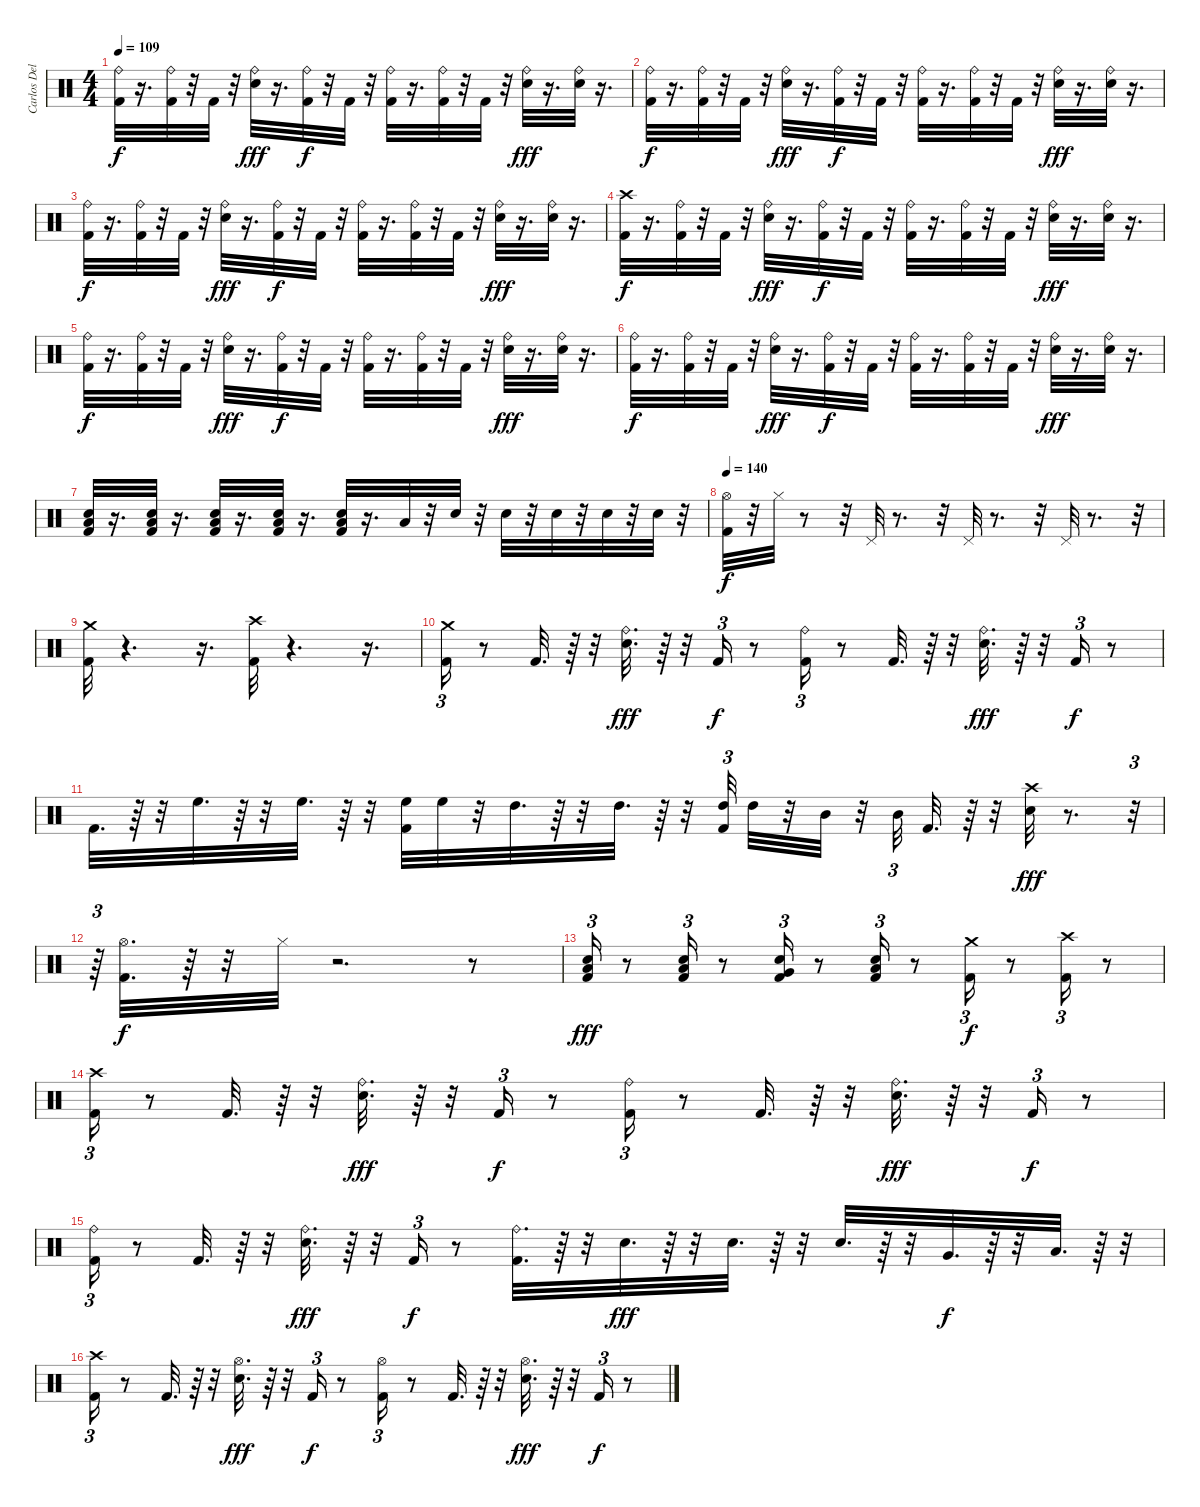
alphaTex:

\track ("Carlos Delgado" "Carlos Del") {instrument percussion}
\staff {score}
\articulation defaults
\ts (4 4)
\tempo 109
\clef neutral
\ks c
("Kick (hit) 2" "Ride (bell)").32{dy f} r.16{d} ("Ride (bell)" "Kick (hit) 2").32 r.32 "Kick (hit) 2".32 r.32 ("Ride (bell)" "Electric Snare (hit)").32{dy fff} r.16{d} ("Ride (bell)" "Kick (hit) 2").32{dy f} r.32 "Kick (hit) 2".32 r.32 ("Kick (hit) 2" "Ride (bell)").32 r.16{d} ("Ride (bell)" "Kick (hit) 2").32 r.32 "Kick (hit) 2".32 r.32 ("Ride (bell)" "Electric Snare (hit)").32{dy fff} r.16{d} ("Electric Snare (hit)" "Ride (bell)").32 r.16{d} |
("Ride (bell)" "Kick (hit) 2").32{dy f} r.16{d} ("Ride (bell)" "Kick (hit) 2").32 r.32 "Kick (hit) 2".32 r.32 ("Ride (bell)" "Electric Snare (hit)").32{dy fff} r.16{d} ("Kick (hit) 2" "Ride (bell)").32{dy f} r.32 "Kick (hit) 2".32 r.32 ("Kick (hit) 2" "Ride (bell)").32 r.16{d} ("Ride (bell)" "Kick (hit) 2").32 r.32 "Kick (hit) 2".32 r.32 ("Electric Snare (hit)" "Ride (bell)").32{dy fff} r.16{d} ("Ride (bell)" "Electric Snare (hit)").32 r.16{d} |
("Ride (bell)" "Kick (hit) 2").32{dy f} r.16{d} ("Ride (bell)" "Kick (hit) 2").32 r.32 "Kick (hit) 2".32 r.32 ("Electric Snare (hit)" "Ride (bell)").32{dy fff} r.16{d} ("Kick (hit) 2" "Ride (bell)").32{dy f} r.32 "Kick (hit) 2".32 r.32 ("Kick (hit) 2" "Ride (bell)").32 r.16{d} ("Ride (bell)" "Kick (hit) 2").32 r.32 "Kick (hit) 2".32 r.32 ("Ride (bell)" "Electric Snare (hit)").32{dy fff} r.16{d} ("Ride (bell)" "Electric Snare (hit)").32 r.16{d} |
("Kick (hit) 2" "Crash high (hit)").32{dy f} r.16{d} ("Ride (bell)" "Kick (hit) 2").32 r.32 "Kick (hit) 2".32 r.32 ("Ride (bell)" "Electric Snare (hit)").32{dy fff} r.16{d} ("Kick (hit) 2" "Ride (bell)").32{dy f} r.32 "Kick (hit) 2".32 r.32 ("Ride (bell)" "Kick (hit) 2").32 r.16{d} ("Kick (hit) 2" "Ride (bell)").32 r.32 "Kick (hit) 2".32 r.32 ("Ride (bell)" "Electric Snare (hit)").32{dy fff} r.16{d} ("Ride (bell)" "Electric Snare (hit)").32 r.16{d} |
("Ride (bell)" "Kick (hit) 2").32{dy f} r.16{d} ("Ride (bell)" "Kick (hit) 2").32 r.32 "Kick (hit) 2".32 r.32 ("Ride (bell)" "Electric Snare (hit)").32{dy fff} r.16{d} ("Kick (hit) 2" "Ride (bell)").32{dy f} r.32 "Kick (hit) 2".32 r.32 ("Ride (bell)" "Kick (hit) 2").32 r.16{d} ("Ride (bell)" "Kick (hit) 2").32 r.32 "Kick (hit) 2".32 r.32 ("Electric Snare (hit)" "Ride (bell)").32{dy fff} r.16{d} ("Electric Snare (hit)" "Ride (bell)").32 r.16{d} |
("Kick (hit) 2" "Ride (bell)").32{dy f} r.16{d} ("Ride (bell)" "Kick (hit) 2").32 r.32 "Kick (hit) 2".32 r.32 ("Electric Snare (hit)" "Ride (bell)").32{dy fff} r.16{d} ("Ride (bell)" "Kick (hit) 2").32{dy f} r.32 "Kick (hit) 2".32 r.32 ("Ride (bell)" "Kick (hit) 2").32 r.16{d} ("Kick (hit) 2" "Ride (bell)").32 r.32 "Kick (hit) 2".32 r.32 ("Ride (bell)" "Electric Snare (hit)").32{dy fff} r.16{d} ("Ride (bell)" "Electric Snare (hit)").32 r.16{d} |
("Kick (hit) 2" "Low Floor Tom (hit)" "Electric Snare (hit)").32 r.16{d} ("Low Floor Tom (hit)" "Electric Snare (hit)" "Kick (hit) 2").32 r.16{d} ("Low Floor Tom (hit)" "Kick (hit) 2" "Electric Snare (hit)").32 r.16{d} ("Low Floor Tom (hit)" "Kick (hit) 2" "Electric Snare (hit)").32 r.16{d} ("Low Floor Tom (hit)" "Kick (hit) 2" "Electric Snare (hit)").32 r.16{d} "Low Floor Tom (hit)".32 r.32 "Electric Snare (hit)".32 r.32 "Electric Snare (hit)".32 r.32 "Electric Snare (hit)".32 r.32 "Electric Snare (hit)".32 r.32 "Electric Snare (hit)".32 r.32 |
\tempo 140
("Hi-Hat (open)" "Kick (hit) 2").32{dy f} r.32 "Hi-Hat (closed)".32 r.8 r.32 "Pedal Hi-Hat (hit)".32 r.8{d} r.32 "Pedal Hi-Hat (hit)".32 r.8{d} r.32 "Pedal Hi-Hat (hit)".32 r.8{d} r.32 |
("Crash medium (hit)" "Kick (hit) 2").32 r.4{d} r.16{d} ("Kick (hit) 2" "Crash high (hit)").32 r.4{d} r.16{d} |
("Crash medium (hit)" "Kick (hit) 2").16{tu (3 2)} r.8 "Kick (hit) 2".32{d} r.64 r.32 ("Ride (bell)" "Electric Snare (hit)").32{d dy fff} r.64 r.32 "Kick (hit) 2".16{tu (3 2) dy f} r.8 ("Ride (bell)" "Kick (hit) 2").16{tu (3 2)} r.8 "Kick (hit) 2".32{d} r.64 r.32 ("Electric Snare (hit)" "Ride (bell)").32{d dy fff} r.64 r.32 "Kick (hit) 2".16{tu (3 2) dy f} r.8 |
"Kick (hit) 2".32{d} r.64 r.32 "High Floor Tom (hit)".32{d} r.64 r.32 "High Floor Tom (hit)".32{d} r.64 r.32 ("Kick (hit) 2" "High Floor Tom (hit)").32 "High Floor Tom (hit)".32 r.32 "High Tom (hit)".32{d} r.64 r.32 "High Tom (hit)".32{d} r.64 r.32 ("High Tom (hit)" "Kick (hit) 2").32{tu (3 2)} "High Tom (hit)".32 r.32 "Mid Tom (hit)".32 r.32 "Mid Tom (hit)".32{tu (3 2)} "Kick (hit) 2".32{d} r.64 r.32 ("Electric Snare (hit)" "Crash high (hit)").32{dy fff} r.8{d} r.32{tu (3 2)} |
r.64{tu (3 2)} ("Kick (hit) 2" "Hi-Hat (open)").32{d dy f} r.64 r.32 "Hi-Hat (closed)".32 r.2{d} r.8 |
("Kick (hit) 2" "Low Tom (hit)" "Electric Snare (hit)").16{tu (3 2) dy fff} r.8 ("Electric Snare (hit)" "Low Tom (hit)" "Kick (hit) 2").16{tu (3 2)} r.8 ("Electric Snare (hit)" "Kick (hit) 2" "Very Low Tom (hit)").16{tu (3 2)} r.8 ("Kick (hit) 2" "Low Floor Tom (hit)" "Electric Snare (hit)").16{tu (3 2)} r.8 ("Crash medium (hit)" "Kick (hit) 2").16{tu (3 2) dy f} r.8 ("Kick (hit) 2" "Crash high (hit)").16{tu (3 2)} r.8 |
("Crash high (hit)" "Kick (hit) 2").16{tu (3 2)} r.8 "Kick (hit) 2".32{d} r.64 r.32 ("Electric Snare (hit)" "Ride (bell)").32{d dy fff} r.64 r.32 "Kick (hit) 2".16{tu (3 2) dy f} r.8 ("Kick (hit) 2" "Ride (bell)").16{tu (3 2)} r.8 "Kick (hit) 2".32{d} r.64 r.32 ("Electric Snare (hit)" "Ride (bell)").32{d dy fff} r.64 r.32 "Kick (hit) 2".16{tu (3 2) dy f} r.8 |
("Ride (bell)" "Kick (hit) 2").16{tu (3 2)} r.8 "Kick (hit) 2".32{d} r.64 r.32 ("Ride (bell)" "Electric Snare (hit)").32{d dy fff} r.64 r.32 "Kick (hit) 2".16{tu (3 2) dy f} r.8 ("Kick (hit) 2" "Ride (bell)").32{d} r.64 r.32 "Electric Snare (hit)".32{d dy fff} r.64 r.32 "Electric Snare (hit)".32{d} r.64 r.32 "Electric Snare (hit)".32{d} r.64 r.32 "Very Low Tom (hit)".32{d dy f} r.64 r.32 "Low Floor Tom (hit)".32{d} r.64 r.32 |
("Crash high (hit)" "Kick (hit) 2").16{tu (3 2)} r.8 "Kick (hit) 2".32{d} r.64 r.32 ("Hi-Hat (open)" "Electric Snare (hit)").32{d dy fff} r.64 r.32 "Kick (hit) 2".16{tu (3 2) dy f} r.8 ("Kick (hit) 2" "Hi-Hat (open)").16{tu (3 2)} r.8 "Kick (hit) 2".32{d} r.64 r.32 ("Electric Snare (hit)" "Hi-Hat (open)").32{d dy fff} r.64 r.32 "Kick (hit) 2".16{tu (3 2) dy f} r.8
